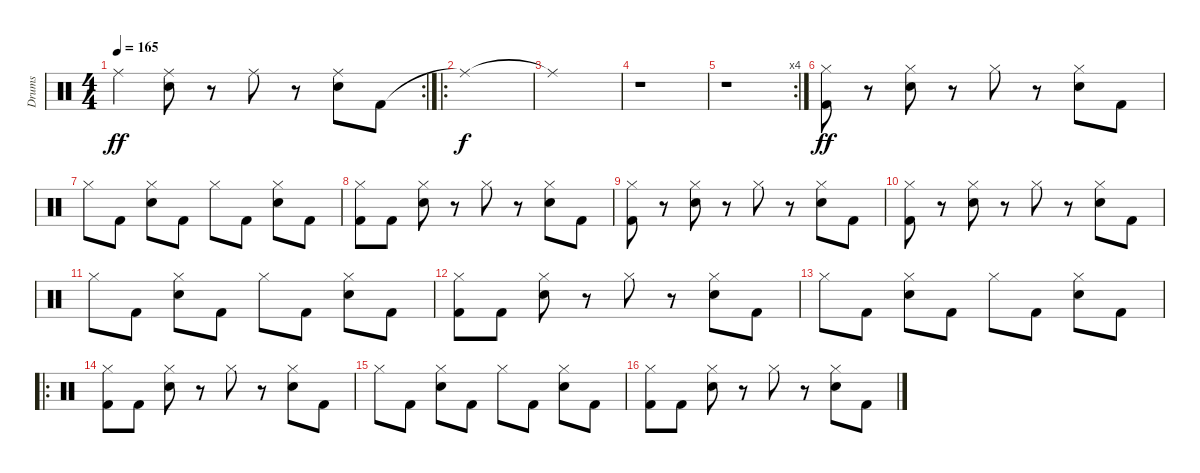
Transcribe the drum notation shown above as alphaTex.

\track ("Drums" "Drums") {instrument percussion}
\staff {score}
\articulation defaults
\rc 2
\ts (4 4)
\tempo 165
\clef neutral
\ks c "Ride (middle)".4{dy ff}
("Ride (middle)" "Snare (hit) 2").8 r.8 "Ride (middle)".8 r.8 ("Ride (middle)" "Snare (hit) 2").8 "Kick (hit) 2".8 |
\ro "Ride (middle)"{t}.1{dy f}
|
"Ride (middle)"{t}.1 |
r.1 |
\rc 4
r.1 |
("Hi-Hat (closed)" "Kick (hit) 2").8{dy ff} r.8 ("Hi-Hat (closed)" "Snare (hit) 2").8 r.8 "Hi-Hat (closed)".8 r.8 ("Hi-Hat (closed)" "Snare (hit) 2").8 "Kick (hit) 2".8 |
"Hi-Hat (closed)".8 "Kick (hit) 2".8 ("Hi-Hat (closed)" "Snare (hit) 2").8 "Kick (hit) 2".8 "Hi-Hat (closed)".8 "Kick (hit) 2".8 ("Hi-Hat (closed)" "Snare (hit) 2").8 "Kick (hit) 2".8 |
("Hi-Hat (closed)" "Kick (hit) 2").8 "Kick (hit) 2".8 ("Hi-Hat (closed)" "Snare (hit) 2").8 r.8 "Hi-Hat (closed)".8 r.8 ("Hi-Hat (closed)" "Snare (hit) 2").8 "Kick (hit) 2".8 |
("Hi-Hat (closed)" "Kick (hit) 2").8 r.8 ("Hi-Hat (closed)" "Snare (hit) 2").8 r.8 "Hi-Hat (closed)".8 r.8 ("Hi-Hat (closed)" "Snare (hit) 2").8 "Kick (hit) 2".8 |
("Hi-Hat (closed)" "Kick (hit) 2").8 r.8 ("Hi-Hat (closed)" "Snare (hit) 2").8 r.8 "Hi-Hat (closed)".8 r.8 ("Hi-Hat (closed)" "Snare (hit) 2").8 "Kick (hit) 2".8 |
"Hi-Hat (closed)".8 "Kick (hit) 2".8 ("Hi-Hat (closed)" "Snare (hit) 2").8 "Kick (hit) 2".8 "Hi-Hat (closed)".8 "Kick (hit) 2".8 ("Hi-Hat (closed)" "Snare (hit) 2").8 "Kick (hit) 2".8 |
("Hi-Hat (closed)" "Kick (hit) 2").8 "Kick (hit) 2".8 ("Hi-Hat (closed)" "Snare (hit) 2").8 r.8 "Hi-Hat (closed)".8 r.8 ("Hi-Hat (closed)" "Snare (hit) 2").8 "Kick (hit) 2".8 |
"Hi-Hat (closed)".8 "Kick (hit) 2".8 ("Hi-Hat (closed)" "Snare (hit) 2").8 "Kick (hit) 2".8 "Hi-Hat (closed)".8 "Kick (hit) 2".8 ("Hi-Hat (closed)" "Snare (hit) 2").8 "Kick (hit) 2".8 |
\ro
("Hi-Hat (closed)" "Kick (hit) 2").8 "Kick (hit) 2".8 ("Hi-Hat (closed)" "Snare (hit) 2").8 r.8 "Hi-Hat (closed)".8 r.8 ("Hi-Hat (closed)" "Snare (hit) 2").8 "Kick (hit) 2".8 |
"Hi-Hat (closed)".8 "Kick (hit) 2".8 ("Hi-Hat (closed)" "Snare (hit) 2").8 "Kick (hit) 2".8 "Hi-Hat (closed)".8 "Kick (hit) 2".8 ("Hi-Hat (closed)" "Snare (hit) 2").8 "Kick (hit) 2".8 |
("Hi-Hat (closed)" "Kick (hit) 2").8 "Kick (hit) 2".8 ("Hi-Hat (closed)" "Snare (hit) 2").8 r.8 "Hi-Hat (closed)".8 r.8 ("Hi-Hat (closed)" "Snare (hit) 2").8 "Kick (hit) 2".8
